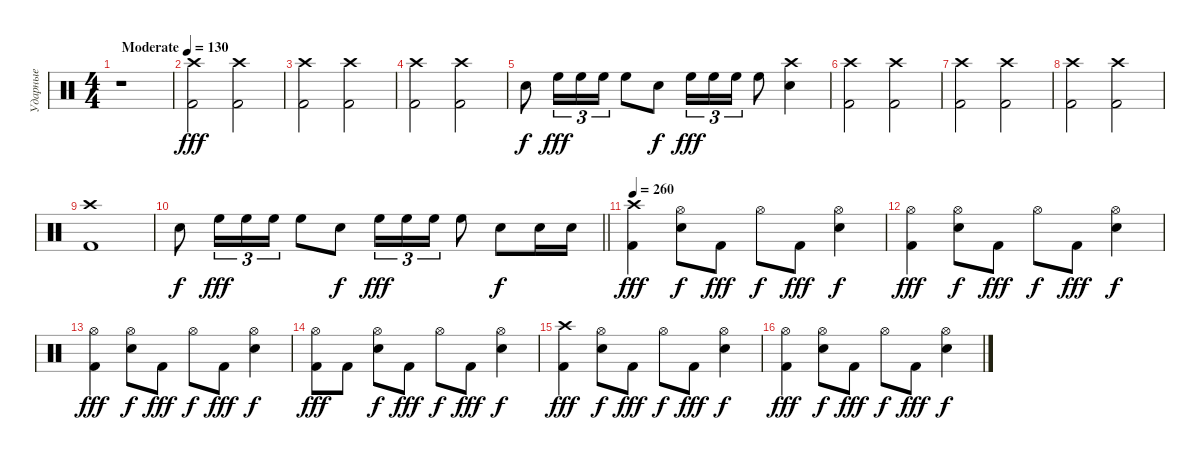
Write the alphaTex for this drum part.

\track ("Ударные" "Ударные") {instrument percussion}
\staff {score}
\articulation defaults
\ts (4 4)
\tempo (130 "Moderate")
\clef neutral
\ks c
r.1{dy fff} |
("Kick (hit) 2" "Crash high (hit)").2 ("Kick (hit) 2" "Crash high (hit)").2 |
("Kick (hit) 2" "Crash high (hit)").2 ("Kick (hit) 2" "Crash high (hit)").2 |
("Kick (hit) 2" "Crash high (hit)").2 ("Kick (hit) 2" "Crash high (hit)").2 |
"Snare (hit) 2".8{dy f} "High Floor Tom (hit)".16{tu (3 2) dy fff} "High Floor Tom (hit)".16{tu (3 2)} "High Floor Tom (hit)".16{tu (3 2)} "High Floor Tom (hit)".8 "Snare (hit) 2".8{dy f} "High Floor Tom (hit)".16{tu (3 2) dy fff} "High Floor Tom (hit)".16{tu (3 2)} "High Floor Tom (hit)".16{tu (3 2)} "High Floor Tom (hit)".8 ("Snare (hit) 2" "Crash high (hit)").4 |
("Kick (hit) 2" "Crash high (hit)").2 ("Kick (hit) 2" "Crash high (hit)").2 |
("Kick (hit) 2" "Crash high (hit)").2 ("Kick (hit) 2" "Crash high (hit)").2 |
("Kick (hit) 2" "Crash high (hit)").2 ("Kick (hit) 2" "Crash high (hit)").2 |
("Kick (hit) 2" "Crash high (hit)").1 |
\barLineRight lightlight "Snare (hit) 2".8{dy f} "High Floor Tom (hit)".16{tu (3 2) dy fff} "High Floor Tom (hit)".16{tu (3 2)} "High Floor Tom (hit)".16{tu (3 2)} "High Floor Tom (hit)".8 "Snare (hit) 2".8{dy f} "High Floor Tom (hit)".16{tu (3 2) dy fff} "High Floor Tom (hit)".16{tu (3 2)} "High Floor Tom (hit)".16{tu (3 2)} "High Floor Tom (hit)".8 "Snare (hit) 2".8{dy f} "Snare (hit) 2".16 "Snare (hit) 2".16
|
\tempo 260
("Kick (hit) 2" "Crash high (hit)").4{dy fff} ("Snare (hit) 2" "Hi-Hat (open)").8{dy f} "Kick (hit) 2".8{dy fff} "Hi-Hat (open)".8{dy f} "Kick (hit) 2".8{dy fff} ("Snare (hit) 2" "Hi-Hat (open)").4{dy f} |
("Kick (hit) 2" "Hi-Hat (open)").4{dy fff} ("Snare (hit) 2" "Hi-Hat (open)").8{dy f} "Kick (hit) 2".8{dy fff} "Hi-Hat (open)".8{dy f} "Kick (hit) 2".8{dy fff} ("Snare (hit) 2" "Hi-Hat (open)").4{dy f} |
("Kick (hit) 2" "Hi-Hat (open)").4{dy fff} ("Snare (hit) 2" "Hi-Hat (open)").8{dy f} "Kick (hit) 2".8{dy fff} "Hi-Hat (open)".8{dy f} "Kick (hit) 2".8{dy fff} ("Snare (hit) 2" "Hi-Hat (open)").4{dy f} |
("Kick (hit) 2" "Hi-Hat (open)").8{dy fff} "Kick (hit) 2".8 ("Snare (hit) 2" "Hi-Hat (open)").8{dy f} "Kick (hit) 2".8{dy fff} "Hi-Hat (open)".8{dy f} "Kick (hit) 2".8{dy fff} ("Snare (hit) 2" "Hi-Hat (open)").4{dy f} |
("Kick (hit) 2" "Crash high (hit)").4{dy fff} ("Snare (hit) 2" "Hi-Hat (open)").8{dy f} "Kick (hit) 2".8{dy fff} "Hi-Hat (open)".8{dy f} "Kick (hit) 2".8{dy fff} ("Snare (hit) 2" "Hi-Hat (open)").4{dy f} |
("Kick (hit) 2" "Hi-Hat (open)").4{dy fff} ("Snare (hit) 2" "Hi-Hat (open)").8{dy f} "Kick (hit) 2".8{dy fff} "Hi-Hat (open)".8{dy f} "Kick (hit) 2".8{dy fff} ("Snare (hit) 2" "Hi-Hat (open)").4{dy f}
